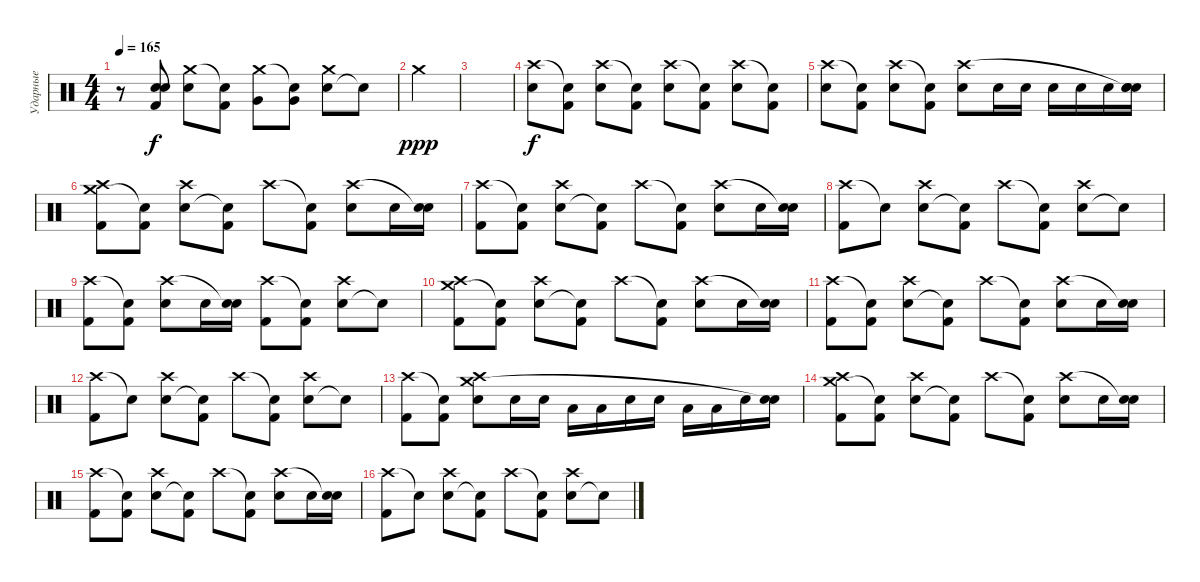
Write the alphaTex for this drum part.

\track ("Ударные" "Ударные") {instrument percussion}
\staff {score}
\articulation defaults
\ts (4 4)
\tempo 165
\clef neutral
\ks c
r.8{dy f} ("Kick (hit) 2" "Snare (hit)"{t} "Snare (hit)"{t}).8 ("Electric Snare (hit)" "Crash medium (hit)").8 ("Kick (hit) 2" "Snare (hit)"{t}).8 ("Very Low Tom (hit)" "Crash medium (hit)").8 ("Very Low Tom (hit)" "Snare (hit)"{t}).8 ("Electric Snare (hit)" "Crash medium (hit)").8 "Snare (hit)"{t}.8 |
"Crash medium (hit)".4{dy ppp} |
|
("Electric Snare (hit)" "Crash high (hit)").8{dy f} ("Kick (hit) 2" "Snare (hit)"{t}).8 ("Electric Snare (hit)" "Crash high (hit)").8 ("Kick (hit) 2" "Snare (hit)"{t}).8 ("Electric Snare (hit)" "Crash high (hit)").8 ("Kick (hit) 2" "Snare (hit)"{t}).8 ("Electric Snare (hit)" "Crash high (hit)").8 ("Kick (hit) 2" "Snare (hit)"{t}).8 |
("Electric Snare (hit)" "Crash high (hit)").8 ("Kick (hit) 2" "Snare (hit)"{t}).8 ("Electric Snare (hit)" "Crash high (hit)").8 ("Kick (hit) 2" "Snare (hit)"{t}).8 ("Electric Snare (hit)" "Crash high (hit)").8 "Electric Snare (hit)".16 "Electric Snare (hit)".16 "Electric Snare (hit)".16 "Electric Snare (hit)".16 "Electric Snare (hit)".16 ("Electric Snare (hit)" "Snare (hit)"{t} "Snare (hit)").16 |
("Crash medium (hit)" "Crash high (hit)" "Kick (hit) 2").8 ("Snare (hit)"{t} "Kick (hit) 2").8 ("Electric Snare (hit)" "Crash high (hit)").8 ("Snare (hit)"{t} "Kick (hit) 2").8 "Crash high (hit)".8 ("Snare (hit)"{t} "Kick (hit) 2").8 ("Electric Snare (hit)" "Crash high (hit)").8 "Electric Snare (hit)".16 ("Electric Snare (hit)" "Electric Snare (hit)"{t}).16 |
("Crash high (hit)" "Kick (hit) 2").8 ("Snare (hit)"{t} "Kick (hit) 2").8 ("Electric Snare (hit)" "Crash high (hit)").8 ("Snare (hit)"{t} "Kick (hit) 2").8 "Crash high (hit)".8 ("Snare (hit)"{t} "Kick (hit) 2").8 ("Electric Snare (hit)" "Crash high (hit)").8 "Electric Snare (hit)".16 ("Electric Snare (hit)" "Electric Snare (hit)"{t}).16 |
("Crash high (hit)" "Kick (hit) 2").8 "Snare (hit)"{t}.8 ("Electric Snare (hit)" "Crash high (hit)").8 ("Snare (hit)"{t} "Kick (hit) 2").8 "Crash high (hit)".8 ("Snare (hit)"{t} "Kick (hit) 2").8 ("Electric Snare (hit)" "Crash high (hit)").8 "Snare (hit)"{t}.8 |
("Crash high (hit)" "Kick (hit) 2").8 ("Snare (hit)"{t} "Kick (hit) 2").8 ("Electric Snare (hit)" "Crash high (hit)").8 "Electric Snare (hit)".16 ("Electric Snare (hit)" "Electric Snare (hit)"{t}).16 ("Crash high (hit)" "Kick (hit) 2").8 ("Snare (hit)"{t} "Kick (hit) 2").8 ("Electric Snare (hit)" "Crash high (hit)").8 "Snare (hit)"{t}.8 |
("Crash medium (hit)" "Crash high (hit)" "Kick (hit) 2").8 ("Snare (hit)"{t} "Kick (hit) 2").8 ("Electric Snare (hit)" "Crash high (hit)").8 ("Snare (hit)"{t} "Kick (hit) 2").8 "Crash high (hit)".8 ("Snare (hit)"{t} "Kick (hit) 2").8 ("Electric Snare (hit)" "Crash high (hit)").8 "Electric Snare (hit)".16 ("Electric Snare (hit)" "Electric Snare (hit)"{t}).16 |
("Crash high (hit)" "Kick (hit) 2").8 ("Snare (hit)"{t} "Kick (hit) 2").8 ("Electric Snare (hit)" "Crash high (hit)").8 ("Snare (hit)"{t} "Kick (hit) 2").8 "Crash high (hit)".8 ("Snare (hit)"{t} "Kick (hit) 2").8 ("Electric Snare (hit)" "Crash high (hit)").8 "Electric Snare (hit)".16 ("Electric Snare (hit)" "Electric Snare (hit)"{t}).16 |
("Crash high (hit)" "Kick (hit) 2").8 "Snare (hit)"{t}.8 ("Electric Snare (hit)" "Crash high (hit)").8 ("Snare (hit)"{t} "Kick (hit) 2").8 "Crash high (hit)".8 ("Snare (hit)"{t} "Kick (hit) 2").8 ("Electric Snare (hit)" "Crash high (hit)").8 "Snare (hit)"{t}.8 |
("Crash high (hit)" "Kick (hit) 2").8 ("Snare (hit)"{t} "Kick (hit) 2").8 ("Electric Snare (hit)" "Crash medium (hit)" "Crash high (hit)").8 "Electric Snare (hit)".16 "Electric Snare (hit)".16 "Low Tom (hit)".16 "Low Tom (hit)".16 "Electric Snare (hit)".16 "Electric Snare (hit)".16 "Low Tom (hit)".16 "Low Tom (hit)".16 "Electric Snare (hit)".16 ("Electric Snare (hit)" "Snare (hit)"{t}).16 |
("Crash medium (hit)" "Crash high (hit)" "Kick (hit) 2").8 ("Snare (hit)"{t} "Kick (hit) 2").8 ("Electric Snare (hit)" "Crash high (hit)").8 ("Snare (hit)"{t} "Kick (hit) 2").8 "Crash high (hit)".8 ("Snare (hit)"{t} "Kick (hit) 2").8 ("Electric Snare (hit)" "Crash high (hit)").8 "Electric Snare (hit)".16 ("Electric Snare (hit)" "Electric Snare (hit)"{t}).16 |
("Crash high (hit)" "Kick (hit) 2").8 ("Snare (hit)"{t} "Kick (hit) 2").8 ("Electric Snare (hit)" "Crash high (hit)").8 ("Snare (hit)"{t} "Kick (hit) 2").8 "Crash high (hit)".8 ("Snare (hit)"{t} "Kick (hit) 2").8 ("Electric Snare (hit)" "Crash high (hit)").8 "Electric Snare (hit)".16 ("Electric Snare (hit)" "Electric Snare (hit)"{t}).16 |
("Crash high (hit)" "Kick (hit) 2").8 "Snare (hit)"{t}.8 ("Electric Snare (hit)" "Crash high (hit)").8 ("Snare (hit)"{t} "Kick (hit) 2").8 "Crash high (hit)".8 ("Snare (hit)"{t} "Kick (hit) 2").8 ("Electric Snare (hit)" "Crash high (hit)").8 "Snare (hit)"{t}.8
